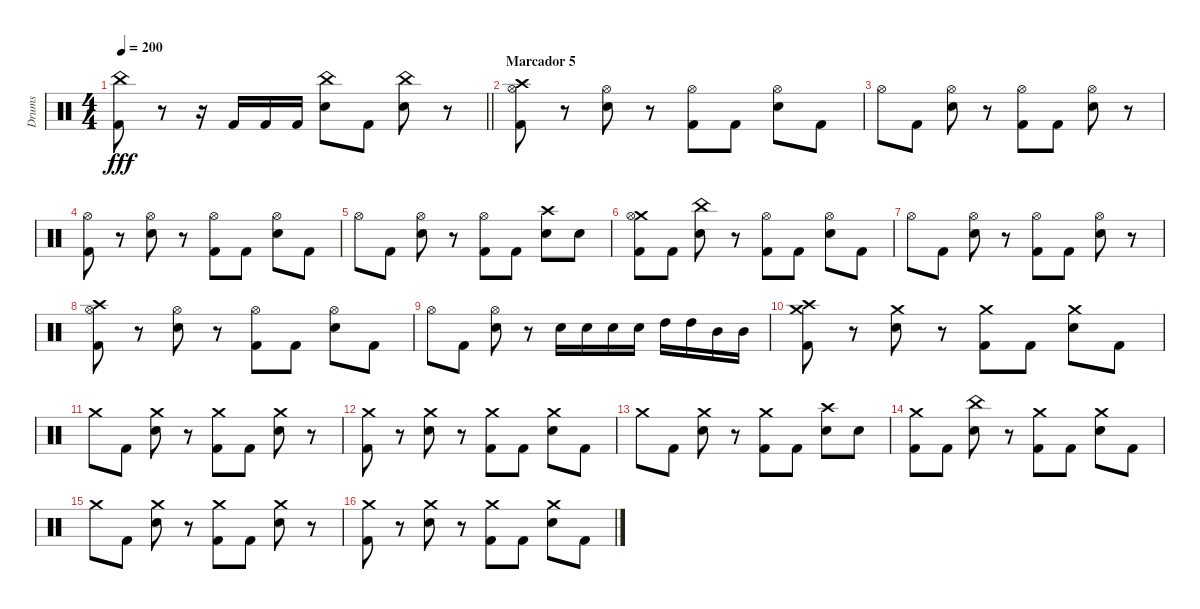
\track ("Drums" "Drums") {instrument percussion}
\staff {score}
\articulation defaults
\ts (4 4)
\tempo 200
\clef neutral
\barLineRight lightlight
\ks c
("China (hit)" "Kick (hit) 2").8{dy fff} r.8 r.16 "Kick (hit) 2".16 "Kick (hit) 2".16 "Kick (hit) 2".16 ("China (hit)" "Electric Snare (hit)").8 "Kick (hit) 2".8 ("China (hit)" "Electric Snare (hit)").8 r.8 |
\section ("" "Marcador 5")
("Crash high (hit)" "Hi-Hat (open)" "Kick (hit) 2").8 r.8 ("Hi-Hat (open)" "Electric Snare (hit)").8 r.8 ("Hi-Hat (open)" "Kick (hit) 2").8 "Kick (hit) 2".8 ("Hi-Hat (open)" "Electric Snare (hit)").8 "Kick (hit) 2".8 |
"Hi-Hat (open)".8 "Kick (hit) 2".8 ("Hi-Hat (open)" "Electric Snare (hit)").8 r.8 ("Hi-Hat (open)" "Kick (hit) 2").8 "Kick (hit) 2".8 ("Hi-Hat (open)" "Electric Snare (hit)").8 r.8 |
("Hi-Hat (open)" "Kick (hit) 2").8 r.8 ("Hi-Hat (open)" "Electric Snare (hit)").8 r.8 ("Hi-Hat (open)" "Kick (hit) 2").8 "Kick (hit) 2".8 ("Hi-Hat (open)" "Electric Snare (hit)").8 "Kick (hit) 2".8 |
"Hi-Hat (open)".8 "Kick (hit) 2".8 ("Hi-Hat (open)" "Electric Snare (hit)").8 r.8 ("Hi-Hat (open)" "Kick (hit) 2").8 "Kick (hit) 2".8 ("Crash high (hit)" "Electric Snare (hit)").8 "Electric Snare (hit)".8 |
("Crash medium (hit)" "Hi-Hat (open)" "Kick (hit) 2").8 "Kick (hit) 2".8 ("China (hit)" "Electric Snare (hit)").8 r.8 ("Hi-Hat (open)" "Kick (hit) 2").8 "Kick (hit) 2".8 ("Hi-Hat (open)" "Electric Snare (hit)").8 "Kick (hit) 2".8 |
"Hi-Hat (open)".8 "Kick (hit) 2".8 ("Hi-Hat (open)" "Electric Snare (hit)").8 r.8 ("Hi-Hat (open)" "Kick (hit) 2").8 "Kick (hit) 2".8 ("Hi-Hat (open)" "Electric Snare (hit)").8 r.8 |
("Crash high (hit)" "Hi-Hat (open)" "Kick (hit) 2").8 r.8 ("Hi-Hat (open)" "Electric Snare (hit)").8 r.8 ("Hi-Hat (open)" "Kick (hit) 2").8 "Kick (hit) 2".8 ("Hi-Hat (open)" "Electric Snare (hit)").8 "Kick (hit) 2".8 |
"Hi-Hat (open)".8 "Kick (hit) 2".8 ("Hi-Hat (open)" "Electric Snare (hit)").8 r.8 "Electric Snare (hit)".16 "Electric Snare (hit)".16 "Electric Snare (hit)".16 "Electric Snare (hit)".16 "High Tom (hit)".16 "High Tom (hit)".16 "Mid Tom (hit)".16 "Mid Tom (hit)".16 |
("Crash medium (hit)" "Crash high (hit)" "Kick (hit) 2").8 r.8 ("Crash medium (hit)" "Electric Snare (hit)").8 r.8 ("Crash medium (hit)" "Kick (hit) 2").8 "Kick (hit) 2".8 ("Crash medium (hit)" "Electric Snare (hit)").8 "Kick (hit) 2".8 |
"Crash medium (hit)".8 "Kick (hit) 2".8 ("Crash medium (hit)" "Electric Snare (hit)").8 r.8 ("Crash medium (hit)" "Kick (hit) 2").8 "Kick (hit) 2".8 ("Crash medium (hit)" "Electric Snare (hit)").8 r.8 |
("Crash medium (hit)" "Kick (hit) 2").8 r.8 ("Crash medium (hit)" "Electric Snare (hit)").8 r.8 ("Crash medium (hit)" "Kick (hit) 2").8 "Kick (hit) 2".8 ("Crash medium (hit)" "Electric Snare (hit)").8 "Kick (hit) 2".8 |
"Crash medium (hit)".8 "Kick (hit) 2".8 ("Crash medium (hit)" "Electric Snare (hit)").8 r.8 ("Crash medium (hit)" "Kick (hit) 2").8 "Kick (hit) 2".8 ("Crash high (hit)" "Electric Snare (hit)").8 "Electric Snare (hit)".8 |
("Crash medium (hit)" "Kick (hit) 2").8 "Kick (hit) 2".8 ("China (hit)" "Electric Snare (hit)").8 r.8 ("Crash medium (hit)" "Kick (hit) 2").8 "Kick (hit) 2".8 ("Crash medium (hit)" "Electric Snare (hit)").8 "Kick (hit) 2".8 |
"Crash medium (hit)".8 "Kick (hit) 2".8 ("Crash medium (hit)" "Electric Snare (hit)").8 r.8 ("Crash medium (hit)" "Kick (hit) 2").8 "Kick (hit) 2".8 ("Crash medium (hit)" "Electric Snare (hit)").8 r.8 |
("Crash medium (hit)" "Kick (hit) 2").8 r.8 ("Crash medium (hit)" "Electric Snare (hit)").8 r.8 ("Crash medium (hit)" "Kick (hit) 2").8 "Kick (hit) 2".8 ("Crash medium (hit)" "Electric Snare (hit)").8 "Kick (hit) 2".8
